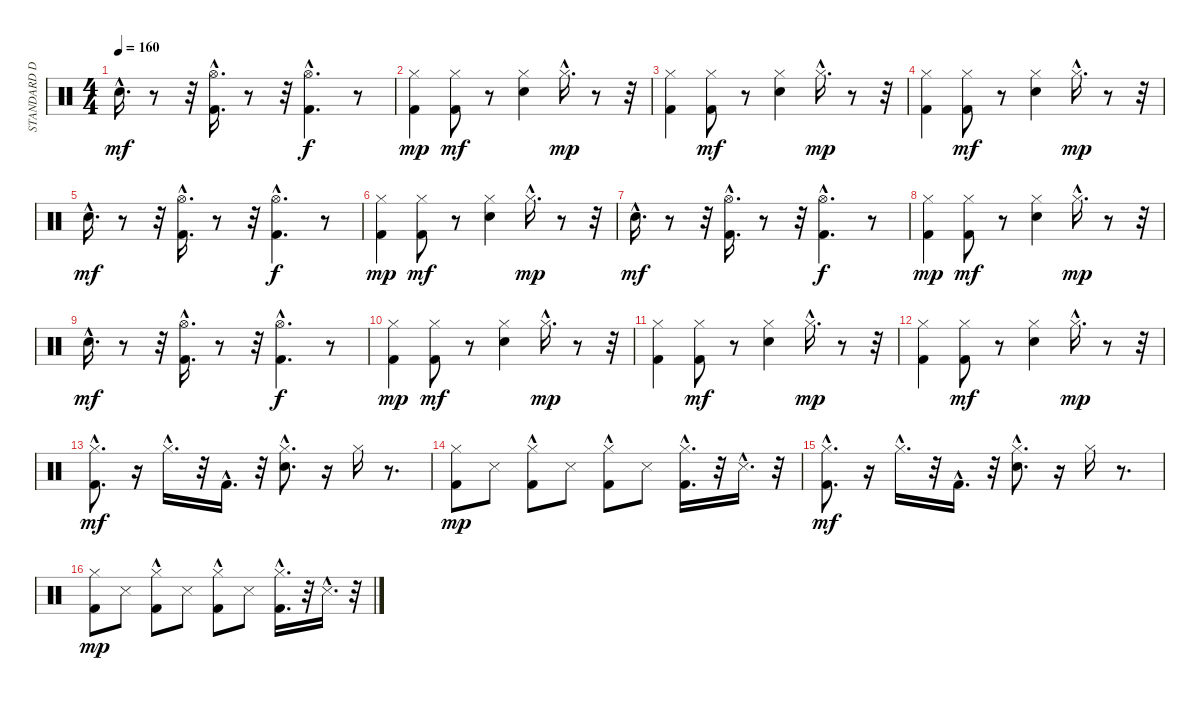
\track ("STANDARD DRUMS" "STANDARD D") {instrument percussion}
\staff {score}
\articulation defaults
\ts (4 4)
\tempo 160
\clef neutral
\ks c "Electric Snare (hit)"{hac}.16{d dy mf}
r.8 r.32 ("Kick (hit) 2"{hac} "Hi-Hat (open)").16{d} r.8 r.32 ("Kick (hit) 2"{hac} "Hi-Hat (open)"{hac}).4{d dy f} r.8 |
("Hi-Hat (closed)" "Kick (hit) 2").4{dy mp} ("Hi-Hat (closed)" "Kick (hit) 2").8{dy mf} r.8 ("Hi-Hat (closed)" "Electric Snare (hit)").4 "Hi-Hat (closed)"{hac}.16{d dy mp} r.8 r.32 |
("Hi-Hat (closed)" "Kick (hit) 2").4 ("Hi-Hat (closed)" "Kick (hit) 2").8{dy mf} r.8 ("Hi-Hat (closed)" "Electric Snare (hit)").4 "Hi-Hat (closed)"{hac}.16{d dy mp} r.8 r.32 |
("Hi-Hat (closed)" "Kick (hit) 2").4 ("Hi-Hat (closed)" "Kick (hit) 2").8{dy mf} r.8 ("Hi-Hat (closed)" "Electric Snare (hit)").4 "Hi-Hat (closed)"{hac}.16{d dy mp} r.8 r.32 |
"Electric Snare (hit)"{hac}.16{d dy mf} r.8 r.32 ("Kick (hit) 2"{hac} "Hi-Hat (open)").16{d} r.8 r.32 ("Kick (hit) 2"{hac} "Hi-Hat (open)"{hac}).4{d dy f} r.8 |
("Hi-Hat (closed)" "Kick (hit) 2").4{dy mp} ("Hi-Hat (closed)" "Kick (hit) 2").8{dy mf} r.8 ("Hi-Hat (closed)" "Electric Snare (hit)").4 "Hi-Hat (closed)"{hac}.16{d dy mp} r.8 r.32 |
"Electric Snare (hit)"{hac}.16{d dy mf} r.8 r.32 ("Kick (hit) 2"{hac} "Hi-Hat (open)").16{d} r.8 r.32 ("Kick (hit) 2"{hac} "Hi-Hat (open)"{hac}).4{d dy f} r.8 |
("Hi-Hat (closed)" "Kick (hit) 2").4{dy mp} ("Hi-Hat (closed)" "Kick (hit) 2").8{dy mf} r.8 ("Hi-Hat (closed)" "Electric Snare (hit)").4 "Hi-Hat (closed)"{hac}.16{d dy mp} r.8 r.32 |
"Electric Snare (hit)"{hac}.16{d dy mf} r.8 r.32 ("Kick (hit) 2"{hac} "Hi-Hat (open)").16{d} r.8 r.32 ("Kick (hit) 2"{hac} "Hi-Hat (open)"{hac}).4{d dy f} r.8 |
("Hi-Hat (closed)" "Kick (hit) 2").4{dy mp} ("Hi-Hat (closed)" "Kick (hit) 2").8{dy mf} r.8 ("Hi-Hat (closed)" "Electric Snare (hit)").4 "Hi-Hat (closed)"{hac}.16{d dy mp} r.8 r.32 |
("Hi-Hat (closed)" "Kick (hit) 2").4 ("Hi-Hat (closed)" "Kick (hit) 2").8{dy mf} r.8 ("Hi-Hat (closed)" "Electric Snare (hit)").4 "Hi-Hat (closed)"{hac}.16{d dy mp} r.8 r.32 |
("Hi-Hat (closed)" "Kick (hit) 2").4 ("Hi-Hat (closed)" "Kick (hit) 2").8{dy mf} r.8 ("Hi-Hat (closed)" "Electric Snare (hit)").4 "Hi-Hat (closed)"{hac}.16{d dy mp} r.8 r.32 |
("Hi-Hat (closed)"{hac} "Kick (hit) 2"{hac}).8{d dy mf} r.16 "Hi-Hat (closed)"{hac}.16{d} r.32 "Kick (hit) 2"{hac}.16{d} r.32 ("Hi-Hat (closed)"{hac} "Electric Snare (hit)"{hac}).8{d} r.16 "Hi-Hat (closed)".16 r.8{d} |
("Hi-Hat (closed)" "Kick (hit) 2").8{dy mp} "Snare (side stick) 3".8 ("Hi-Hat (closed)" "Kick (hit) 2"{hac}).8 "Snare (side stick) 3".8 ("Hi-Hat (closed)" "Kick (hit) 2"{hac}).8 "Snare (side stick) 3".8 ("Hi-Hat (closed)"{hac} "Kick (hit) 2"{hac}).16{d} r.32 "Snare (side stick) 3"{hac}.16{d} r.32 |
("Hi-Hat (closed)"{hac} "Kick (hit) 2"{hac}).8{d dy mf} r.16 "Hi-Hat (closed)"{hac}.16{d} r.32 "Kick (hit) 2"{hac}.16{d} r.32 ("Hi-Hat (closed)"{hac} "Electric Snare (hit)"{hac}).8{d} r.16 "Hi-Hat (closed)".16 r.8{d} |
("Hi-Hat (closed)" "Kick (hit) 2").8{dy mp} "Snare (side stick) 3".8 ("Hi-Hat (closed)" "Kick (hit) 2"{hac}).8 "Snare (side stick) 3".8 ("Hi-Hat (closed)" "Kick (hit) 2"{hac}).8 "Snare (side stick) 3".8 ("Hi-Hat (closed)"{hac} "Kick (hit) 2"{hac}).16{d} r.32 "Snare (side stick) 3"{hac}.16{d} r.32
